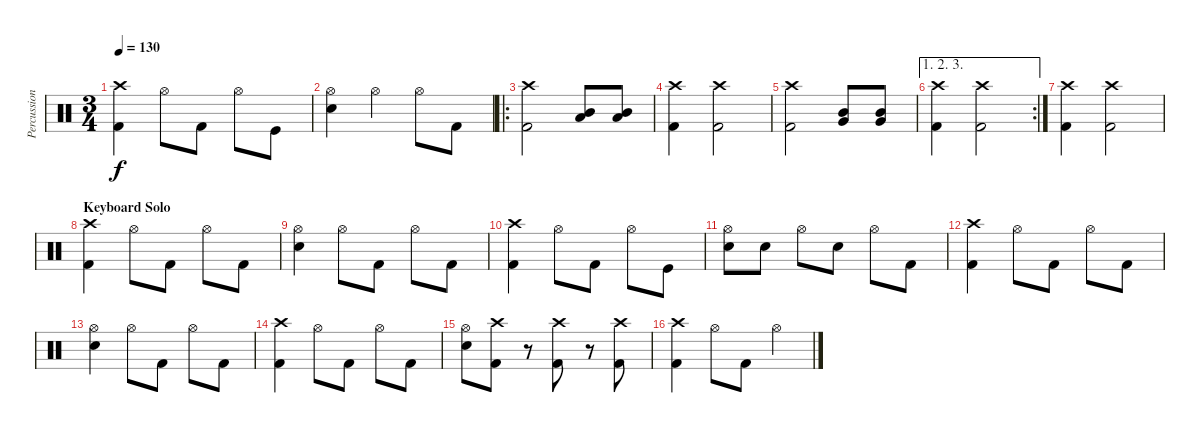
\track ("Percussion" "Percussion") {instrument percussion}
\staff {score}
\articulation defaults
\ts (3 4)
\tempo 130
\clef neutral
\ks c
("Crash high (hit)" "Kick (hit) 2").4{dy f} "Hi-Hat (open)".8 "Kick (hit) 2".8 "Hi-Hat (open)".8 "Kick (hit)".8 |
("Hi-Hat (open)" "Snare (hit) 2").4 "Hi-Hat (open)".4 "Hi-Hat (open)".8 "Kick (hit) 2".8 |
\ro
("Crash high (hit)" "Kick (hit) 2").2 ("Low Tom (hit)" "Mid Tom (hit)").8{bd 240} ("Low Tom (hit)" "Mid Tom (hit)").8 |
("Crash high (hit)" "Kick (hit) 2").4 ("Crash high (hit)" "Kick (hit) 2").2 |
("Crash high (hit)" "Kick (hit) 2").2 ("Mid Tom (hit)" "Very Low Tom (hit)").8{bd 240} ("Mid Tom (hit)" "Very Low Tom (hit)").8 |
\ae (1 2 3)
\rc 2
("Crash high (hit)" "Kick (hit) 2").4 ("Crash high (hit)" "Kick (hit) 2").2 |
("Crash high (hit)" "Kick (hit) 2").4 ("Crash high (hit)" "Kick (hit) 2").2 |
\section ("" "Keyboard Solo")
("Crash high (hit)" "Kick (hit) 2").4 "Hi-Hat (open)".8 "Kick (hit) 2".8 "Hi-Hat (open)".8 "Kick (hit) 2".8 |
("Hi-Hat (open)" "Snare (hit) 2").4 "Hi-Hat (open)".8 "Kick (hit) 2".8 "Hi-Hat (open)".8 "Kick (hit) 2".8 |
("Crash high (hit)" "Kick (hit) 2").4 "Hi-Hat (open)".8 "Kick (hit) 2".8 "Hi-Hat (open)".8 "Kick (hit)".8 |
("Hi-Hat (open)" "Snare (hit) 2").8 "Snare (hit) 2".8 "Hi-Hat (open)".8 "Snare (hit) 2".8 "Hi-Hat (open)".8 "Kick (hit) 2".8 |
("Crash high (hit)" "Kick (hit) 2").4 "Hi-Hat (open)".8 "Kick (hit) 2".8 "Hi-Hat (open)".8 "Kick (hit) 2".8 |
("Hi-Hat (open)" "Snare (hit) 2").4 "Hi-Hat (open)".8 "Kick (hit) 2".8 "Hi-Hat (open)".8 "Kick (hit) 2".8 |
("Crash high (hit)" "Kick (hit) 2").4 "Hi-Hat (open)".8 "Kick (hit) 2".8 "Hi-Hat (open)".8 "Kick (hit) 2".8 |
("Hi-Hat (open)" "Snare (hit) 2").8 ("Crash high (hit)" "Kick (hit) 2").8 r.8 ("Crash high (hit)" "Kick (hit) 2").8 r.8 ("Crash high (hit)" "Kick (hit) 2").8 |
("Crash high (hit)" "Kick (hit) 2").4 "Hi-Hat (open)".8 "Kick (hit) 2".8 "Hi-Hat (open)".4
